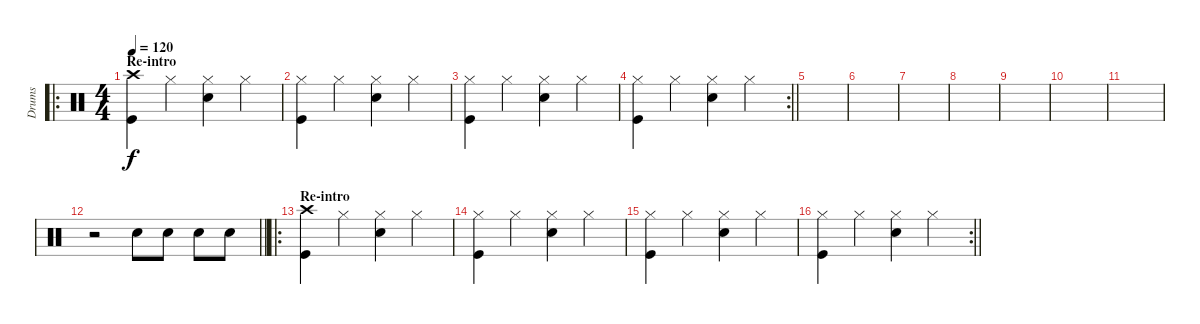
\track ("Drums" "Drums") {instrument percussion}
\staff {score}
\articulation defaults
\ro
\ts (4 4)
\section ("" "Re-intro")
\tempo 120
\clef neutral
\ks c
("Crash high (hit)" "Kick (hit)").4{dy f} "Hi-Hat (closed)".4 ("Hi-Hat (closed)" "Electric Snare (hit)").4 "Hi-Hat (closed)".4 |
("Hi-Hat (closed)" "Kick (hit)").4 "Hi-Hat (closed)".4 ("Hi-Hat (closed)" "Electric Snare (hit)").4 "Hi-Hat (closed)".4 |
("Hi-Hat (closed)" "Kick (hit)").4 "Hi-Hat (closed)".4 ("Hi-Hat (closed)" "Electric Snare (hit)").4 "Hi-Hat (closed)".4 |
\rc 2
\barLineRight lightlight
("Hi-Hat (closed)" "Kick (hit)").4 "Hi-Hat (closed)".4 ("Hi-Hat (closed)" "Electric Snare (hit)").4 "Hi-Hat (closed)".4 |
|
|
|
|
|
|
|
\barLineRight lightlight
r.2 "Electric Snare (hit)".8 "Electric Snare (hit)".8 "Electric Snare (hit)".8 "Electric Snare (hit)".8 |
\ro
\section ("" "Re-intro")
("Crash high (hit)" "Kick (hit)").4 "Hi-Hat (closed)".4 ("Hi-Hat (closed)" "Electric Snare (hit)").4 "Hi-Hat (closed)".4 |
("Hi-Hat (closed)" "Kick (hit)").4 "Hi-Hat (closed)".4 ("Hi-Hat (closed)" "Electric Snare (hit)").4 "Hi-Hat (closed)".4 |
("Hi-Hat (closed)" "Kick (hit)").4 "Hi-Hat (closed)".4 ("Hi-Hat (closed)" "Electric Snare (hit)").4 "Hi-Hat (closed)".4 |
\rc 2
\barLineRight lightlight
("Hi-Hat (closed)" "Kick (hit)").4 "Hi-Hat (closed)".4 ("Hi-Hat (closed)" "Electric Snare (hit)").4 "Hi-Hat (closed)".4
